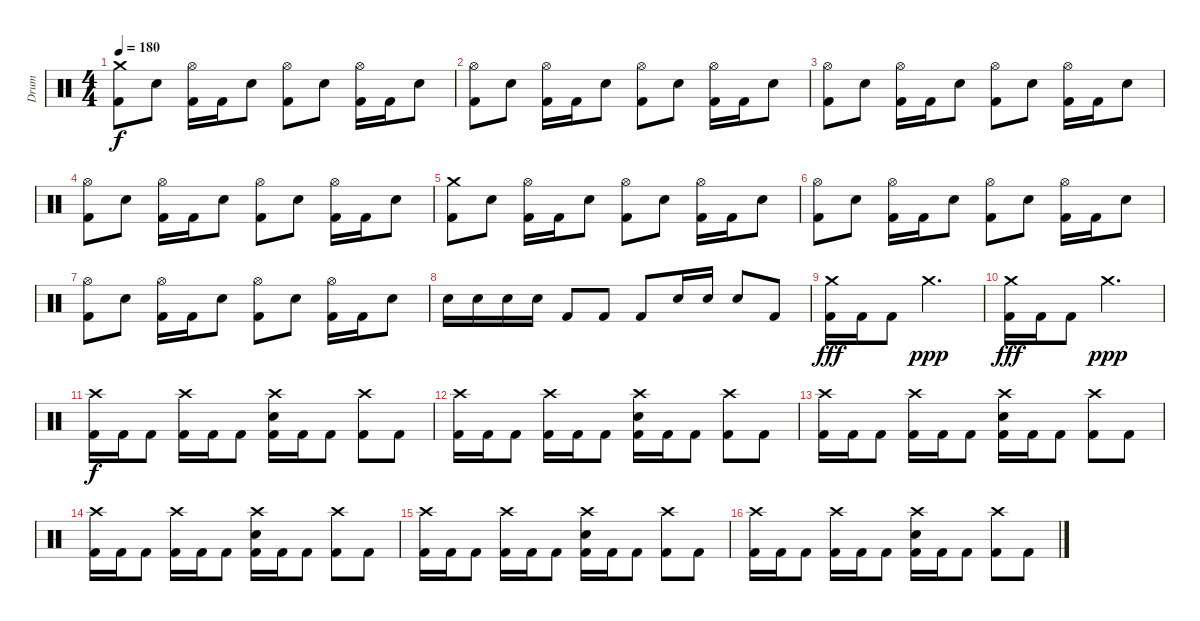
\track ("Drum" "Drum") {instrument percussion}
\staff {score}
\articulation defaults
\ts (4 4)
\tempo 180
\clef neutral
\ks c
("Crash medium (hit)" "Kick (hit) 2").8{dy f} "Snare (hit) 2".8 ("Hi-Hat (open)" "Kick (hit) 2").16 "Kick (hit) 2".16 "Snare (hit) 2".8 ("Hi-Hat (open)" "Kick (hit) 2").8 "Snare (hit) 2".8 ("Hi-Hat (open)" "Kick (hit) 2").16 "Kick (hit) 2".16 "Snare (hit) 2".8 |
("Hi-Hat (open)" "Kick (hit) 2").8 "Snare (hit) 2".8 ("Hi-Hat (open)" "Kick (hit) 2").16 "Kick (hit) 2".16 "Snare (hit) 2".8 ("Hi-Hat (open)" "Kick (hit) 2").8 "Snare (hit) 2".8 ("Hi-Hat (open)" "Kick (hit) 2").16 "Kick (hit) 2".16 "Snare (hit) 2".8 |
("Hi-Hat (open)" "Kick (hit) 2").8 "Snare (hit) 2".8 ("Hi-Hat (open)" "Kick (hit) 2").16 "Kick (hit) 2".16 "Snare (hit) 2".8 ("Hi-Hat (open)" "Kick (hit) 2").8 "Snare (hit) 2".8 ("Hi-Hat (open)" "Kick (hit) 2").16 "Kick (hit) 2".16 "Snare (hit) 2".8 |
("Hi-Hat (open)" "Kick (hit) 2").8 "Snare (hit) 2".8 ("Hi-Hat (open)" "Kick (hit) 2").16 "Kick (hit) 2".16 "Snare (hit) 2".8 ("Hi-Hat (open)" "Kick (hit) 2").8 "Snare (hit) 2".8 ("Hi-Hat (open)" "Kick (hit) 2").16 "Kick (hit) 2".16 "Snare (hit) 2".8 |
("Crash medium (hit)" "Kick (hit) 2").8 "Snare (hit) 2".8 ("Hi-Hat (open)" "Kick (hit) 2").16 "Kick (hit) 2".16 "Snare (hit) 2".8 ("Hi-Hat (open)" "Kick (hit) 2").8 "Snare (hit) 2".8 ("Hi-Hat (open)" "Kick (hit) 2").16 "Kick (hit) 2".16 "Snare (hit) 2".8 |
("Hi-Hat (open)" "Kick (hit) 2").8 "Snare (hit) 2".8 ("Hi-Hat (open)" "Kick (hit) 2").16 "Kick (hit) 2".16 "Snare (hit) 2".8 ("Hi-Hat (open)" "Kick (hit) 2").8 "Snare (hit) 2".8 ("Hi-Hat (open)" "Kick (hit) 2").16 "Kick (hit) 2".16 "Snare (hit) 2".8 |
("Hi-Hat (open)" "Kick (hit) 2").8 "Snare (hit) 2".8 ("Hi-Hat (open)" "Kick (hit) 2").16 "Kick (hit) 2".16 "Snare (hit) 2".8 ("Hi-Hat (open)" "Kick (hit) 2").8 "Snare (hit) 2".8 ("Hi-Hat (open)" "Kick (hit) 2").16 "Kick (hit) 2".16 "Snare (hit) 2".8 |
"Snare (hit) 2".16 "Snare (hit) 2".16 "Snare (hit) 2".16 "Snare (hit) 2".16 "Kick (hit) 2".8 "Kick (hit) 2".8 "Kick (hit) 2".8 "Snare (hit) 2".16 "Snare (hit) 2".16 "Snare (hit) 2".8 "Kick (hit) 2".8 |
("Crash medium (hit)" "Kick (hit) 2").16{dy fff} "Kick (hit) 2".16 "Kick (hit) 2".8 "Crash medium (hit)".2{d dy ppp} |
("Crash medium (hit)" "Kick (hit) 2").16{dy fff} "Kick (hit) 2".16 "Kick (hit) 2".8 "Crash medium (hit)".2{d dy ppp} |
("Crash high (hit)" "Kick (hit) 2").16{dy f} "Kick (hit) 2".16 "Kick (hit) 2".8 ("Crash high (hit)" "Kick (hit) 2").16 "Kick (hit) 2".16 "Kick (hit) 2".8 ("Crash high (hit)" "Snare (hit) 2" "Kick (hit) 2").16 "Kick (hit) 2".16 "Kick (hit) 2".8 ("Crash high (hit)" "Kick (hit) 2").8 "Kick (hit) 2".8 |
("Crash high (hit)" "Kick (hit) 2").16 "Kick (hit) 2".16 "Kick (hit) 2".8 ("Crash high (hit)" "Kick (hit) 2").16 "Kick (hit) 2".16 "Kick (hit) 2".8 ("Crash high (hit)" "Snare (hit) 2" "Kick (hit) 2").16 "Kick (hit) 2".16 "Kick (hit) 2".8 ("Crash high (hit)" "Kick (hit) 2").8 "Kick (hit) 2".8 |
("Crash high (hit)" "Kick (hit) 2").16 "Kick (hit) 2".16 "Kick (hit) 2".8 ("Crash high (hit)" "Kick (hit) 2").16 "Kick (hit) 2".16 "Kick (hit) 2".8 ("Crash high (hit)" "Snare (hit) 2" "Kick (hit) 2").16 "Kick (hit) 2".16 "Kick (hit) 2".8 ("Crash high (hit)" "Kick (hit) 2").8 "Kick (hit) 2".8 |
("Crash high (hit)" "Kick (hit) 2").16 "Kick (hit) 2".16 "Kick (hit) 2".8 ("Crash high (hit)" "Kick (hit) 2").16 "Kick (hit) 2".16 "Kick (hit) 2".8 ("Crash high (hit)" "Snare (hit) 2" "Kick (hit) 2").16 "Kick (hit) 2".16 "Kick (hit) 2".8 ("Crash high (hit)" "Kick (hit) 2").8 "Kick (hit) 2".8 |
("Crash high (hit)" "Kick (hit) 2").16 "Kick (hit) 2".16 "Kick (hit) 2".8 ("Crash high (hit)" "Kick (hit) 2").16 "Kick (hit) 2".16 "Kick (hit) 2".8 ("Crash high (hit)" "Snare (hit) 2" "Kick (hit) 2").16 "Kick (hit) 2".16 "Kick (hit) 2".8 ("Crash high (hit)" "Kick (hit) 2").8 "Kick (hit) 2".8 |
("Crash high (hit)" "Kick (hit) 2").16 "Kick (hit) 2".16 "Kick (hit) 2".8 ("Crash high (hit)" "Kick (hit) 2").16 "Kick (hit) 2".16 "Kick (hit) 2".8 ("Crash high (hit)" "Snare (hit) 2" "Kick (hit) 2").16 "Kick (hit) 2".16 "Kick (hit) 2".8 ("Crash high (hit)" "Kick (hit) 2").8 "Kick (hit) 2".8
